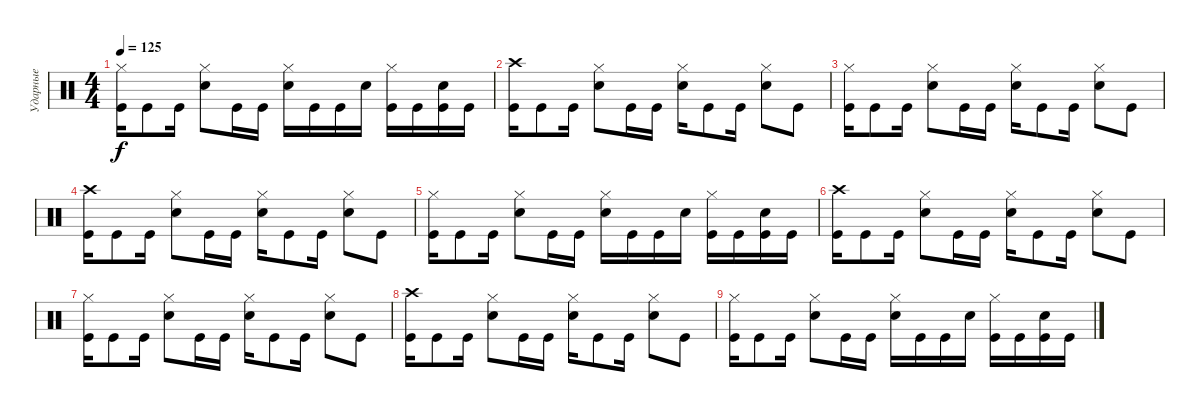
\track ("Ударные" "Ударные") {instrument percussion}
\staff {score}
\articulation defaults
\ts (4 4)
\tempo 125
\clef neutral
\ks c
("Hi-Hat (closed)" "Kick (hit)").16{dy f} "Kick (hit)".8 "Kick (hit)".16 ("Hi-Hat (closed)" "Electric Snare (hit)").8 "Kick (hit)".16 "Kick (hit)".16 ("Hi-Hat (closed)" "Electric Snare (hit)").16 "Kick (hit)".16 "Kick (hit)".16 "Electric Snare (hit)".16 ("Hi-Hat (closed)" "Kick (hit)").16 "Kick (hit)".16 ("Electric Snare (hit)" "Kick (hit)").16 "Kick (hit)".16 |
("Crash high (hit)" "Kick (hit)").16 "Kick (hit)".8 "Kick (hit)".16 ("Hi-Hat (closed)" "Electric Snare (hit)").8 "Kick (hit)".16 "Kick (hit)".16 ("Hi-Hat (closed)" "Electric Snare (hit)").16 "Kick (hit)".8 "Kick (hit)".16 ("Hi-Hat (closed)" "Electric Snare (hit)").8 "Kick (hit)".8 |
("Hi-Hat (closed)" "Kick (hit)").16 "Kick (hit)".8 "Kick (hit)".16 ("Hi-Hat (closed)" "Electric Snare (hit)").8 "Kick (hit)".16 "Kick (hit)".16 ("Hi-Hat (closed)" "Electric Snare (hit)").16 "Kick (hit)".8 "Kick (hit)".16 ("Hi-Hat (closed)" "Electric Snare (hit)").8 "Kick (hit)".8 |
("Crash high (hit)" "Kick (hit)").16 "Kick (hit)".8 "Kick (hit)".16 ("Hi-Hat (closed)" "Electric Snare (hit)").8 "Kick (hit)".16 "Kick (hit)".16 ("Hi-Hat (closed)" "Electric Snare (hit)").16 "Kick (hit)".8 "Kick (hit)".16 ("Hi-Hat (closed)" "Electric Snare (hit)").8 "Kick (hit)".8 |
("Hi-Hat (closed)" "Kick (hit)").16 "Kick (hit)".8 "Kick (hit)".16 ("Hi-Hat (closed)" "Electric Snare (hit)").8 "Kick (hit)".16 "Kick (hit)".16 ("Hi-Hat (closed)" "Electric Snare (hit)").16 "Kick (hit)".16 "Kick (hit)".16 "Electric Snare (hit)".16 ("Hi-Hat (closed)" "Kick (hit)").16 "Kick (hit)".16 ("Electric Snare (hit)" "Kick (hit)").16 "Kick (hit)".16 |
("Crash high (hit)" "Kick (hit)").16 "Kick (hit)".8 "Kick (hit)".16 ("Hi-Hat (closed)" "Electric Snare (hit)").8 "Kick (hit)".16 "Kick (hit)".16 ("Hi-Hat (closed)" "Electric Snare (hit)").16 "Kick (hit)".8 "Kick (hit)".16 ("Hi-Hat (closed)" "Electric Snare (hit)").8 "Kick (hit)".8 |
("Hi-Hat (closed)" "Kick (hit)").16 "Kick (hit)".8 "Kick (hit)".16 ("Hi-Hat (closed)" "Electric Snare (hit)").8 "Kick (hit)".16 "Kick (hit)".16 ("Hi-Hat (closed)" "Electric Snare (hit)").16 "Kick (hit)".8 "Kick (hit)".16 ("Hi-Hat (closed)" "Electric Snare (hit)").8 "Kick (hit)".8 |
("Crash high (hit)" "Kick (hit)").16 "Kick (hit)".8 "Kick (hit)".16 ("Hi-Hat (closed)" "Electric Snare (hit)").8 "Kick (hit)".16 "Kick (hit)".16 ("Hi-Hat (closed)" "Electric Snare (hit)").16 "Kick (hit)".8 "Kick (hit)".16 ("Hi-Hat (closed)" "Electric Snare (hit)").8 "Kick (hit)".8 |
("Hi-Hat (closed)" "Kick (hit)").16 "Kick (hit)".8 "Kick (hit)".16 ("Hi-Hat (closed)" "Electric Snare (hit)").8 "Kick (hit)".16 "Kick (hit)".16 ("Hi-Hat (closed)" "Electric Snare (hit)").16 "Kick (hit)".16 "Kick (hit)".16 "Electric Snare (hit)".16 ("Hi-Hat (closed)" "Kick (hit)").16 "Kick (hit)".16 ("Electric Snare (hit)" "Kick (hit)").16 "Kick (hit)".16
